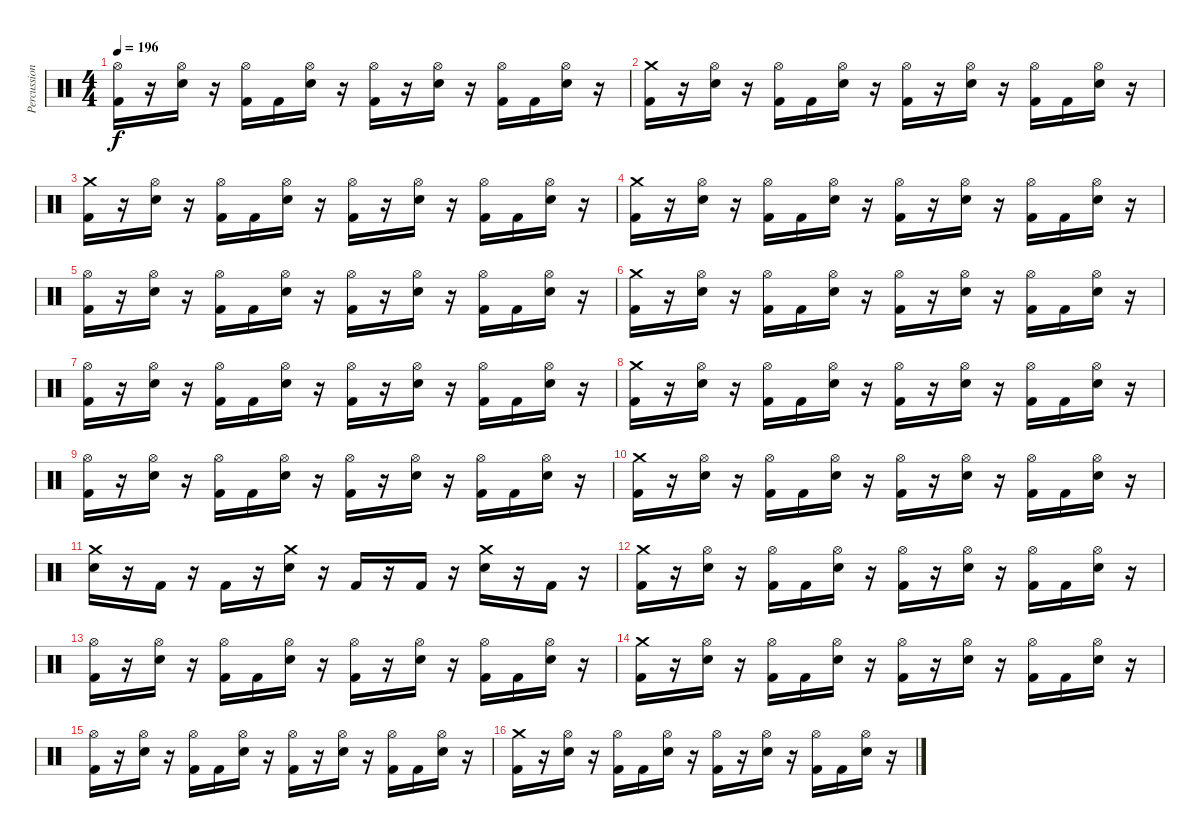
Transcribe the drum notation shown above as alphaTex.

\track ("Percussion" "Percussion") {instrument percussion}
\staff {score}
\articulation defaults
\ts (4 4)
\tempo 196
\clef neutral
\ks c
("Hi-Hat (open)" "Kick (hit) 2").16{dy f} r.16 ("Hi-Hat (open)" "Electric Snare (hit)").16 r.16 ("Hi-Hat (open)" "Kick (hit) 2").16 "Kick (hit) 2".16 ("Hi-Hat (open)" "Electric Snare (hit)").16 r.16 ("Hi-Hat (open)" "Kick (hit) 2").16 r.16 ("Hi-Hat (open)" "Electric Snare (hit)").16 r.16 ("Hi-Hat (open)" "Kick (hit) 2").16 "Kick (hit) 2".16 ("Hi-Hat (open)" "Electric Snare (hit)").16 r.16 |
("Crash medium (hit)" "Kick (hit) 2").16 r.16 ("Hi-Hat (open)" "Electric Snare (hit)").16 r.16 ("Hi-Hat (open)" "Kick (hit) 2").16 "Kick (hit) 2".16 ("Hi-Hat (open)" "Electric Snare (hit)").16 r.16 ("Hi-Hat (open)" "Kick (hit) 2").16 r.16 ("Hi-Hat (open)" "Electric Snare (hit)").16 r.16 ("Hi-Hat (open)" "Kick (hit) 2").16 "Kick (hit) 2".16 ("Hi-Hat (open)" "Electric Snare (hit)").16 r.16 |
("Crash medium (hit)" "Kick (hit) 2").16 r.16 ("Hi-Hat (open)" "Electric Snare (hit)").16 r.16 ("Hi-Hat (open)" "Kick (hit) 2").16 "Kick (hit) 2".16 ("Hi-Hat (open)" "Electric Snare (hit)").16 r.16 ("Hi-Hat (open)" "Kick (hit) 2").16 r.16 ("Hi-Hat (open)" "Electric Snare (hit)").16 r.16 ("Hi-Hat (open)" "Kick (hit) 2").16 "Kick (hit) 2".16 ("Hi-Hat (open)" "Electric Snare (hit)").16 r.16 |
("Crash medium (hit)" "Kick (hit) 2").16 r.16 ("Hi-Hat (open)" "Electric Snare (hit)").16 r.16 ("Hi-Hat (open)" "Kick (hit) 2").16 "Kick (hit) 2".16 ("Hi-Hat (open)" "Electric Snare (hit)").16 r.16 ("Hi-Hat (open)" "Kick (hit) 2").16 r.16 ("Hi-Hat (open)" "Electric Snare (hit)").16 r.16 ("Hi-Hat (open)" "Kick (hit) 2").16 "Kick (hit) 2".16 ("Hi-Hat (open)" "Electric Snare (hit)").16 r.16 |
("Hi-Hat (open)" "Kick (hit) 2").16 r.16 ("Hi-Hat (open)" "Electric Snare (hit)").16 r.16 ("Hi-Hat (open)" "Kick (hit) 2").16 "Kick (hit) 2".16 ("Hi-Hat (open)" "Electric Snare (hit)").16 r.16 ("Hi-Hat (open)" "Kick (hit) 2").16 r.16 ("Hi-Hat (open)" "Electric Snare (hit)").16 r.16 ("Hi-Hat (open)" "Kick (hit) 2").16 "Kick (hit) 2".16 ("Hi-Hat (open)" "Electric Snare (hit)").16 r.16 |
("Crash medium (hit)" "Kick (hit) 2").16 r.16 ("Hi-Hat (open)" "Electric Snare (hit)").16 r.16 ("Hi-Hat (open)" "Kick (hit) 2").16 "Kick (hit) 2".16 ("Hi-Hat (open)" "Electric Snare (hit)").16 r.16 ("Hi-Hat (open)" "Kick (hit) 2").16 r.16 ("Hi-Hat (open)" "Electric Snare (hit)").16 r.16 ("Hi-Hat (open)" "Kick (hit) 2").16 "Kick (hit) 2".16 ("Hi-Hat (open)" "Electric Snare (hit)").16 r.16 |
("Hi-Hat (open)" "Kick (hit) 2").16 r.16 ("Hi-Hat (open)" "Electric Snare (hit)").16 r.16 ("Hi-Hat (open)" "Kick (hit) 2").16 "Kick (hit) 2".16 ("Hi-Hat (open)" "Electric Snare (hit)").16 r.16 ("Hi-Hat (open)" "Kick (hit) 2").16 r.16 ("Hi-Hat (open)" "Electric Snare (hit)").16 r.16 ("Hi-Hat (open)" "Kick (hit) 2").16 "Kick (hit) 2".16 ("Hi-Hat (open)" "Electric Snare (hit)").16 r.16 |
("Crash medium (hit)" "Kick (hit) 2").16 r.16 ("Hi-Hat (open)" "Electric Snare (hit)").16 r.16 ("Hi-Hat (open)" "Kick (hit) 2").16 "Kick (hit) 2".16 ("Hi-Hat (open)" "Electric Snare (hit)").16 r.16 ("Hi-Hat (open)" "Kick (hit) 2").16 r.16 ("Hi-Hat (open)" "Electric Snare (hit)").16 r.16 ("Hi-Hat (open)" "Kick (hit) 2").16 "Kick (hit) 2".16 ("Hi-Hat (open)" "Electric Snare (hit)").16 r.16 |
("Hi-Hat (open)" "Kick (hit) 2").16 r.16 ("Hi-Hat (open)" "Electric Snare (hit)").16 r.16 ("Hi-Hat (open)" "Kick (hit) 2").16 "Kick (hit) 2".16 ("Hi-Hat (open)" "Electric Snare (hit)").16 r.16 ("Hi-Hat (open)" "Kick (hit) 2").16 r.16 ("Hi-Hat (open)" "Electric Snare (hit)").16 r.16 ("Hi-Hat (open)" "Kick (hit) 2").16 "Kick (hit) 2".16 ("Hi-Hat (open)" "Electric Snare (hit)").16 r.16 |
("Crash medium (hit)" "Kick (hit) 2").16 r.16 ("Hi-Hat (open)" "Electric Snare (hit)").16 r.16 ("Hi-Hat (open)" "Kick (hit) 2").16 "Kick (hit) 2".16 ("Hi-Hat (open)" "Electric Snare (hit)").16 r.16 ("Hi-Hat (open)" "Kick (hit) 2").16 r.16 ("Hi-Hat (open)" "Electric Snare (hit)").16 r.16 ("Hi-Hat (open)" "Kick (hit) 2").16 "Kick (hit) 2".16 ("Hi-Hat (open)" "Electric Snare (hit)").16 r.16 |
("Crash medium (hit)" "Electric Snare (hit)").16 r.16 "Kick (hit) 2".16 r.16 "Kick (hit) 2".16 r.16 ("Crash medium (hit)" "Electric Snare (hit)").16 r.16 "Kick (hit) 2".16 r.16 "Kick (hit) 2".16 r.16 ("Crash medium (hit)" "Electric Snare (hit)").16 r.16 "Kick (hit) 2".16 r.16 |
("Crash medium (hit)" "Kick (hit) 2").16 r.16 ("Hi-Hat (open)" "Electric Snare (hit)").16 r.16 ("Hi-Hat (open)" "Kick (hit) 2").16 "Kick (hit) 2".16 ("Hi-Hat (open)" "Electric Snare (hit)").16 r.16 ("Hi-Hat (open)" "Kick (hit) 2").16 r.16 ("Hi-Hat (open)" "Electric Snare (hit)").16 r.16 ("Hi-Hat (open)" "Kick (hit) 2").16 "Kick (hit) 2".16 ("Hi-Hat (open)" "Electric Snare (hit)").16 r.16 |
("Hi-Hat (open)" "Kick (hit) 2").16 r.16 ("Hi-Hat (open)" "Electric Snare (hit)").16 r.16 ("Hi-Hat (open)" "Kick (hit) 2").16 "Kick (hit) 2".16 ("Hi-Hat (open)" "Electric Snare (hit)").16 r.16 ("Hi-Hat (open)" "Kick (hit) 2").16 r.16 ("Hi-Hat (open)" "Electric Snare (hit)").16 r.16 ("Hi-Hat (open)" "Kick (hit) 2").16 "Kick (hit) 2".16 ("Hi-Hat (open)" "Electric Snare (hit)").16 r.16 |
("Crash medium (hit)" "Kick (hit) 2").16 r.16 ("Hi-Hat (open)" "Electric Snare (hit)").16 r.16 ("Hi-Hat (open)" "Kick (hit) 2").16 "Kick (hit) 2".16 ("Hi-Hat (open)" "Electric Snare (hit)").16 r.16 ("Hi-Hat (open)" "Kick (hit) 2").16 r.16 ("Hi-Hat (open)" "Electric Snare (hit)").16 r.16 ("Hi-Hat (open)" "Kick (hit) 2").16 "Kick (hit) 2".16 ("Hi-Hat (open)" "Electric Snare (hit)").16 r.16 |
("Hi-Hat (open)" "Kick (hit) 2").16 r.16 ("Hi-Hat (open)" "Electric Snare (hit)").16 r.16 ("Hi-Hat (open)" "Kick (hit) 2").16 "Kick (hit) 2".16 ("Hi-Hat (open)" "Electric Snare (hit)").16 r.16 ("Hi-Hat (open)" "Kick (hit) 2").16 r.16 ("Hi-Hat (open)" "Electric Snare (hit)").16 r.16 ("Hi-Hat (open)" "Kick (hit) 2").16 "Kick (hit) 2".16 ("Hi-Hat (open)" "Electric Snare (hit)").16 r.16 |
("Crash medium (hit)" "Kick (hit) 2").16 r.16 ("Hi-Hat (open)" "Electric Snare (hit)").16 r.16 ("Hi-Hat (open)" "Kick (hit) 2").16 "Kick (hit) 2".16 ("Hi-Hat (open)" "Electric Snare (hit)").16 r.16 ("Hi-Hat (open)" "Kick (hit) 2").16 r.16 ("Hi-Hat (open)" "Electric Snare (hit)").16 r.16 ("Hi-Hat (open)" "Kick (hit) 2").16 "Kick (hit) 2".16 ("Hi-Hat (open)" "Electric Snare (hit)").16 r.16
